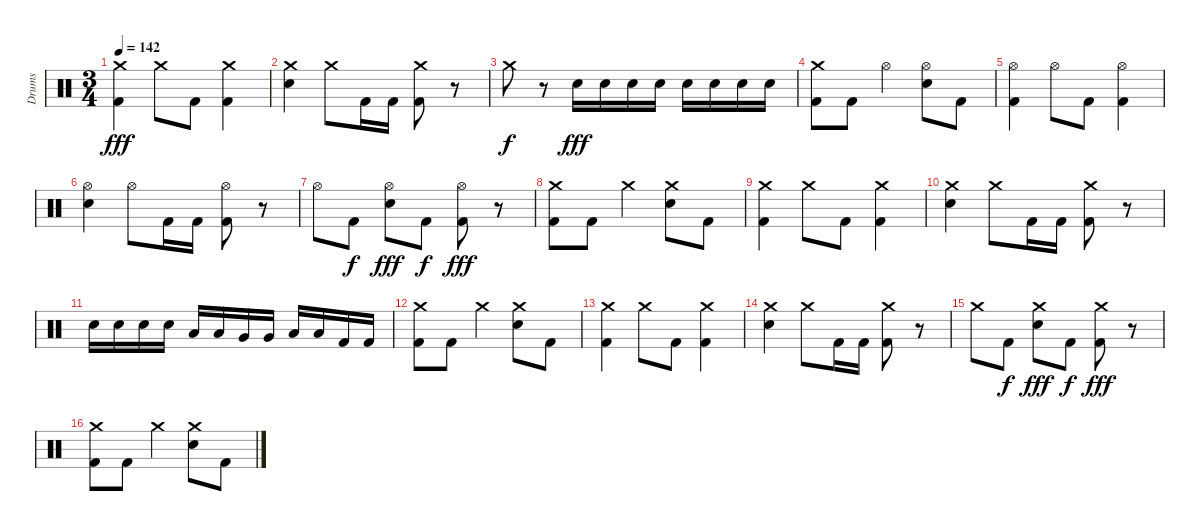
\track ("Drums" "Drums") {instrument percussion}
\staff {score}
\articulation defaults
\ts (3 4)
\tempo 142
\clef neutral
\ks c
("Crash medium (hit)" "Kick (hit) 2").4{dy fff} "Crash medium (hit)".8 "Kick (hit) 2".8 ("Crash medium (hit)" "Kick (hit) 2").4 |
("Crash medium (hit)" "Electric Snare (hit)").4 "Crash medium (hit)".8 "Kick (hit) 2".16 "Kick (hit) 2".16 ("Crash medium (hit)" "Kick (hit) 2").8 r.8 |
"Crash medium (hit)".8{dy f} r.8 "Electric Snare (hit)".16{dy fff} "Electric Snare (hit)".16 "Electric Snare (hit)".16 "Electric Snare (hit)".16 "Electric Snare (hit)".16 "Electric Snare (hit)".16 "Electric Snare (hit)".16 "Electric Snare (hit)".16 |
("Crash medium (hit)" "Kick (hit) 2").8 "Kick (hit) 2".8 "Hi-Hat (open)".4 ("Hi-Hat (open)" "Electric Snare (hit)").8 "Kick (hit) 2".8 |
("Hi-Hat (open)" "Kick (hit) 2").4 "Hi-Hat (open)".8 "Kick (hit) 2".8 ("Hi-Hat (open)" "Kick (hit) 2").4 |
("Hi-Hat (open)" "Electric Snare (hit)").4 "Hi-Hat (open)".8 "Kick (hit) 2".16 "Kick (hit) 2".16 ("Hi-Hat (open)" "Kick (hit) 2").8 r.8 |
"Hi-Hat (open)".8 "Kick (hit) 2".8{dy f} ("Hi-Hat (open)" "Electric Snare (hit)").8{dy fff} "Kick (hit) 2".8{dy f} ("Hi-Hat (open)" "Kick (hit) 2").8{dy fff} r.8 |
("Crash medium (hit)" "Kick (hit) 2").8 "Kick (hit) 2".8 "Crash medium (hit)".4 ("Crash medium (hit)" "Electric Snare (hit)").8 "Kick (hit) 2".8 |
("Crash medium (hit)" "Kick (hit) 2").4 "Crash medium (hit)".8 "Kick (hit) 2".8 ("Crash medium (hit)" "Kick (hit) 2").4 |
("Crash medium (hit)" "Electric Snare (hit)").4 "Crash medium (hit)".8 "Kick (hit) 2".16 "Kick (hit) 2".16 ("Crash medium (hit)" "Kick (hit) 2").8 r.8 |
"Electric Snare (hit)".16 "Electric Snare (hit)".16 "Electric Snare (hit)".16 "Electric Snare (hit)".16 "Low Tom (hit)".16 "Low Tom (hit)".16 "Very Low Tom (hit)".16 "Very Low Tom (hit)".16 "Low Floor Tom (hit)".16 "Low Floor Tom (hit)".16 "Kick (hit) 2".16 "Kick (hit) 2".16 |
("Crash medium (hit)" "Kick (hit) 2").8 "Kick (hit) 2".8 "Crash medium (hit)".4 ("Crash medium (hit)" "Electric Snare (hit)").8 "Kick (hit) 2".8 |
("Crash medium (hit)" "Kick (hit) 2").4 "Crash medium (hit)".8 "Kick (hit) 2".8 ("Crash medium (hit)" "Kick (hit) 2").4 |
("Crash medium (hit)" "Electric Snare (hit)").4 "Crash medium (hit)".8 "Kick (hit) 2".16 "Kick (hit) 2".16 ("Crash medium (hit)" "Kick (hit) 2").8 r.8 |
"Crash medium (hit)".8 "Kick (hit) 2".8{dy f} ("Crash medium (hit)" "Electric Snare (hit)").8{dy fff} "Kick (hit) 2".8{dy f} ("Crash medium (hit)" "Kick (hit) 2").8{dy fff} r.8 |
("Crash medium (hit)" "Kick (hit) 2").8 "Kick (hit) 2".8 "Crash medium (hit)".4 ("Crash medium (hit)" "Electric Snare (hit)").8 "Kick (hit) 2".8
